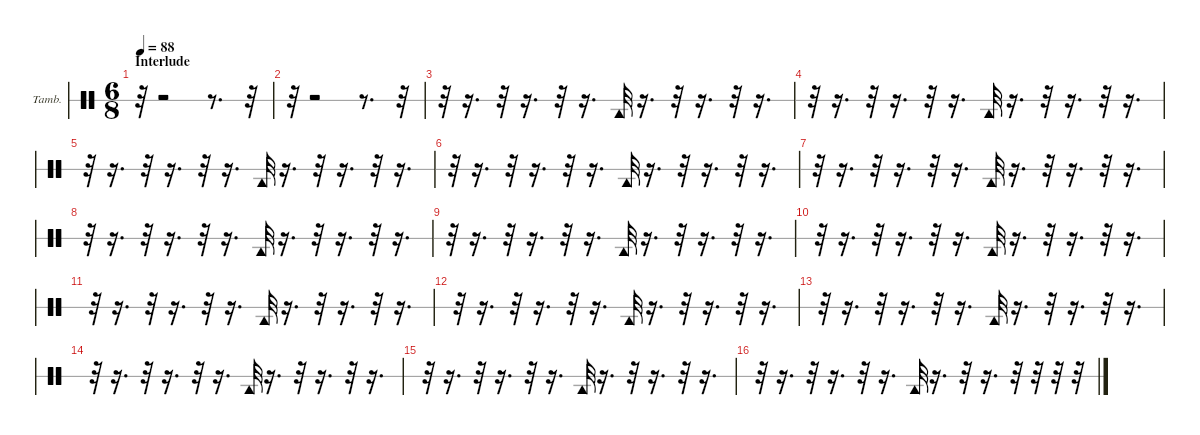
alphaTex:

\hideDynamics
\bracketExtendMode nobrackets
\firstSystemTrackNameOrientation horizontal
\otherSystemsTrackNameOrientation horizontal
\track ("Tambourine" "Tamb.") {instrument percussion}
\staff {score 1}
\articulation defaults
\ts (6 8)
\section ("" "Interlude")
\tempo 88
\clef neutral
\ks c
r.32{dy ff} r.2 r.8{d} r.32 |
r.32 r.2 r.8{d} r.32 |
r.32 r.16{d} r.32 r.16{d} r.32 r.16{d} "Tambourine (hit)".32 r.16{d} r.32 r.16{d} r.32 r.16{d} |
r.32 r.16{d} r.32 r.16{d} r.32 r.16{d} "Tambourine (hit)".32 r.16{d} r.32 r.16{d} r.32 r.16{d} |
r.32 r.16{d} r.32 r.16{d} r.32 r.16{d} "Tambourine (hit)".32 r.16{d} r.32 r.16{d} r.32 r.16{d} |
r.32 r.16{d} r.32 r.16{d} r.32 r.16{d} "Tambourine (hit)".32 r.16{d} r.32 r.16{d} r.32 r.16{d} |
r.32 r.16{d} r.32 r.16{d} r.32 r.16{d} "Tambourine (hit)".32 r.16{d} r.32 r.16{d} r.32 r.16{d} |
r.32 r.16{d} r.32 r.16{d} r.32 r.16{d} "Tambourine (hit)".32 r.16{d} r.32 r.16{d} r.32 r.16{d} |
r.32 r.16{d} r.32 r.16{d} r.32 r.16{d} "Tambourine (hit)".32 r.16{d} r.32 r.16{d} r.32 r.16{d} |
r.32 r.16{d} r.32 r.16{d} r.32 r.16{d} "Tambourine (hit)".32 r.16{d} r.32 r.16{d} r.32 r.16{d} |
r.32 r.16{d} r.32 r.16{d} r.32 r.16{d} "Tambourine (hit)".32 r.16{d} r.32 r.16{d} r.32 r.16{d} |
r.32 r.16{d} r.32 r.16{d} r.32 r.16{d} "Tambourine (hit)".32 r.16{d} r.32 r.16{d} r.32 r.16{d} |
r.32 r.16{d} r.32 r.16{d} r.32 r.16{d} "Tambourine (hit)".32 r.16{d} r.32 r.16{d} r.32 r.16{d} |
r.32 r.16{d} r.32 r.16{d} r.32 r.16{d} "Tambourine (hit)".32 r.16{d} r.32 r.16{d} r.32 r.16{d} |
r.32 r.16{d} r.32 r.16{d} r.32 r.16{d} "Tambourine (hit)".32 r.16{d} r.32 r.16{d} r.32 r.16{d} |
r.32 r.16{d} r.32 r.16{d} r.32 r.16{d} "Tambourine (hit)".32 r.16{d} r.32 r.16{d} r.32 r.32 r.32 r.32
